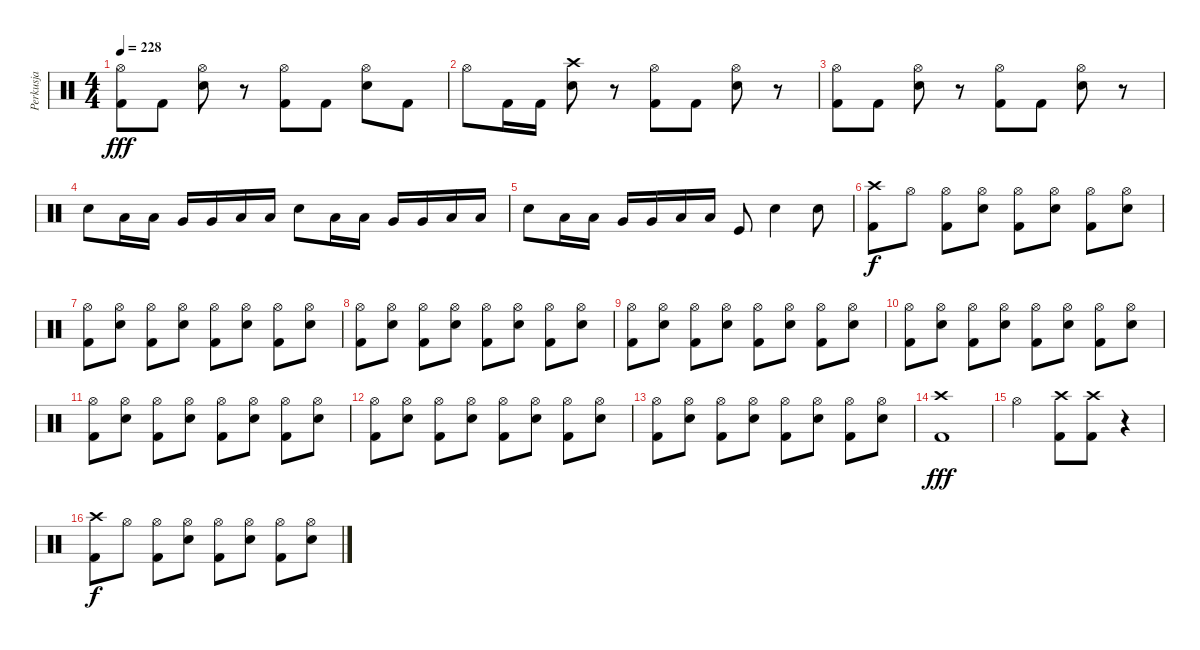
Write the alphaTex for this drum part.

\track ("Perkusja" "Perkusja") {instrument percussion bank 10}
\staff {score}
\articulation defaults
\ts (4 4)
\tempo 228
\clef neutral
\ks c
("Hi-Hat (open)" "Kick (hit) 2").8{dy fff} "Kick (hit) 2".8 ("Hi-Hat (open)" "Snare (hit) 2").8 r.8 ("Hi-Hat (open)" "Kick (hit) 2").8 "Kick (hit) 2".8 ("Hi-Hat (open)" "Snare (hit) 2").8 "Kick (hit) 2".8 |
"Hi-Hat (open)".8 "Kick (hit) 2".16 "Kick (hit) 2".16 ("Crash high (hit)" "Snare (hit) 2").8 r.8 ("Hi-Hat (open)" "Kick (hit) 2").8 "Kick (hit) 2".8 ("Hi-Hat (open)" "Snare (hit) 2").8 r.8 |
("Hi-Hat (open)" "Kick (hit) 2").8 "Kick (hit) 2".8 ("Hi-Hat (open)" "Snare (hit) 2").8 r.8 ("Hi-Hat (open)" "Kick (hit) 2").8 "Kick (hit) 2".8 ("Hi-Hat (open)" "Snare (hit) 2").8 r.8 |
"Snare (hit) 2".8 "Low Tom (hit)".16 "Low Tom (hit)".16 "Very Low Tom (hit)".16 "Very Low Tom (hit)".16 "Low Floor Tom (hit)".16 "Low Floor Tom (hit)".16 "Snare (hit) 2".8 "Low Tom (hit)".16 "Low Tom (hit)".16 "Very Low Tom (hit)".16 "Very Low Tom (hit)".16 "Low Floor Tom (hit)".16 "Low Floor Tom (hit)".16 |
"Snare (hit) 2".8 "Low Tom (hit)".16 "Low Tom (hit)".16 "Very Low Tom (hit)".16 "Very Low Tom (hit)".16 "Low Floor Tom (hit)".16 "Low Floor Tom (hit)".16 "Kick (hit)".8 "Snare (hit) 2".4 "Snare (hit) 2".8 |
("Crash high (hit)" "Kick (hit) 2").8{dy f} "Hi-Hat (open)".8 ("Hi-Hat (open)" "Kick (hit) 2").8 ("Hi-Hat (open)" "Snare (hit) 2").8 ("Hi-Hat (open)" "Kick (hit) 2").8 ("Hi-Hat (open)" "Snare (hit) 2").8 ("Hi-Hat (open)" "Kick (hit) 2").8 ("Hi-Hat (open)" "Snare (hit) 2").8 |
("Hi-Hat (open)" "Kick (hit) 2").8 ("Hi-Hat (open)" "Snare (hit) 2").8 ("Hi-Hat (open)" "Kick (hit) 2").8 ("Hi-Hat (open)" "Snare (hit) 2").8 ("Hi-Hat (open)" "Kick (hit) 2").8 ("Hi-Hat (open)" "Snare (hit) 2").8 ("Hi-Hat (open)" "Kick (hit) 2").8 ("Hi-Hat (open)" "Snare (hit) 2").8 |
("Hi-Hat (open)" "Kick (hit) 2").8 ("Hi-Hat (open)" "Snare (hit) 2").8 ("Hi-Hat (open)" "Kick (hit) 2").8 ("Hi-Hat (open)" "Snare (hit) 2").8 ("Hi-Hat (open)" "Kick (hit) 2").8 ("Hi-Hat (open)" "Snare (hit) 2").8 ("Hi-Hat (open)" "Kick (hit) 2").8 ("Hi-Hat (open)" "Snare (hit) 2").8 |
("Hi-Hat (open)" "Kick (hit) 2").8 ("Hi-Hat (open)" "Snare (hit) 2").8 ("Hi-Hat (open)" "Kick (hit) 2").8 ("Hi-Hat (open)" "Snare (hit) 2").8 ("Hi-Hat (open)" "Kick (hit) 2").8 ("Hi-Hat (open)" "Snare (hit) 2").8 ("Hi-Hat (open)" "Kick (hit) 2").8 ("Hi-Hat (open)" "Snare (hit) 2").8 |
("Hi-Hat (open)" "Kick (hit) 2").8 ("Hi-Hat (open)" "Snare (hit) 2").8 ("Hi-Hat (open)" "Kick (hit) 2").8 ("Hi-Hat (open)" "Snare (hit) 2").8 ("Hi-Hat (open)" "Kick (hit) 2").8 ("Hi-Hat (open)" "Snare (hit) 2").8 ("Hi-Hat (open)" "Kick (hit) 2").8 ("Hi-Hat (open)" "Snare (hit) 2").8 |
("Hi-Hat (open)" "Kick (hit) 2").8 ("Hi-Hat (open)" "Snare (hit) 2").8 ("Hi-Hat (open)" "Kick (hit) 2").8 ("Hi-Hat (open)" "Snare (hit) 2").8 ("Hi-Hat (open)" "Kick (hit) 2").8 ("Hi-Hat (open)" "Snare (hit) 2").8 ("Hi-Hat (open)" "Kick (hit) 2").8 ("Hi-Hat (open)" "Snare (hit) 2").8 |
("Hi-Hat (open)" "Kick (hit) 2").8 ("Hi-Hat (open)" "Snare (hit) 2").8 ("Hi-Hat (open)" "Kick (hit) 2").8 ("Hi-Hat (open)" "Snare (hit) 2").8 ("Hi-Hat (open)" "Kick (hit) 2").8 ("Hi-Hat (open)" "Snare (hit) 2").8 ("Hi-Hat (open)" "Kick (hit) 2").8 ("Hi-Hat (open)" "Snare (hit) 2").8 |
("Hi-Hat (open)" "Kick (hit) 2").8 ("Hi-Hat (open)" "Snare (hit) 2").8 ("Hi-Hat (open)" "Kick (hit) 2").8 ("Hi-Hat (open)" "Snare (hit) 2").8 ("Hi-Hat (open)" "Kick (hit) 2").8 ("Hi-Hat (open)" "Snare (hit) 2").8 ("Hi-Hat (open)" "Kick (hit) 2").8 ("Hi-Hat (open)" "Snare (hit) 2").8 |
("Crash high (hit)" "Kick (hit) 2").1{dy fff} |
"Hi-Hat (open)".2 ("Crash high (hit)" "Kick (hit) 2").8 ("Crash high (hit)" "Kick (hit) 2").8 r.4 |
("Crash high (hit)" "Kick (hit) 2").8{dy f} "Hi-Hat (open)".8 ("Hi-Hat (open)" "Kick (hit) 2").8 ("Hi-Hat (open)" "Snare (hit) 2").8 ("Hi-Hat (open)" "Kick (hit) 2").8 ("Hi-Hat (open)" "Snare (hit) 2").8 ("Hi-Hat (open)" "Kick (hit) 2").8 ("Hi-Hat (open)" "Snare (hit) 2").8
